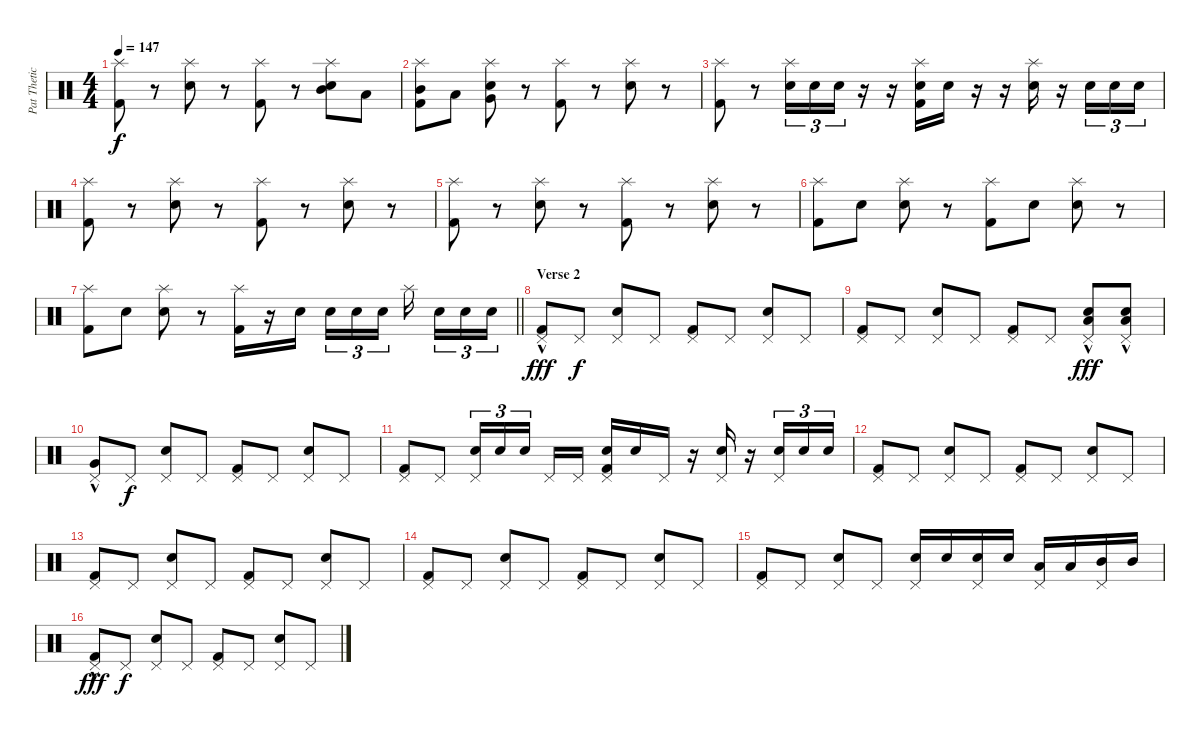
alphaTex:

\track ("Pat Thetic Drums" "Pat Thetic") {instrument percussion}
\staff {score}
\articulation defaults
\ts (4 4)
\tempo 147
\clef neutral
\ks c
("Splash (hit)" "Kick (hit) 2").8{dy f} r.8 ("Splash (hit)" "Snare (hit) 2").8 r.8 ("Splash (hit)" "Kick (hit) 2").8 r.8 ("Splash (hit)" "Snare (hit) 2" "Mid Tom (hit)").8 "Low Floor Tom (hit)".8 |
("Splash (hit)" "Kick (hit) 2" "Mid Tom (hit)").8 "Low Floor Tom (hit)".8 ("Splash (hit)" "Snare (hit) 2" "Very Low Tom (hit)").8 r.8 ("Splash (hit)" "Kick (hit) 2").8 r.8 ("Splash (hit)" "Snare (hit) 2").8 r.8 |
("Splash (hit)" "Kick (hit) 2").8 r.8 ("Splash (hit)" "Snare (hit) 2").16{tu (3 2)} "Snare (hit) 2".16{tu (3 2)} "Snare (hit) 2".16{tu (3 2)} r.16 r.16 ("Splash (hit)" "Kick (hit) 2" "Snare (hit) 2").16 "Snare (hit) 2".16 r.16 r.16 ("Splash (hit)" "Snare (hit) 2").16 r.16 "Snare (hit) 2".16{tu (3 2)} "Snare (hit) 2".16{tu (3 2)} "Snare (hit) 2".16{tu (3 2)} |
("Splash (hit)" "Kick (hit) 2").8 r.8 ("Splash (hit)" "Snare (hit) 2").8 r.8 ("Splash (hit)" "Kick (hit) 2").8 r.8 ("Splash (hit)" "Snare (hit) 2").8 r.8 |
("Splash (hit)" "Kick (hit) 2").8 r.8 ("Splash (hit)" "Snare (hit) 2").8 r.8 ("Splash (hit)" "Kick (hit) 2").8 r.8 ("Splash (hit)" "Snare (hit) 2").8 r.8 |
("Splash (hit)" "Kick (hit) 2").8 "Snare (hit) 2".8 ("Splash (hit)" "Snare (hit) 2").8 r.8 ("Splash (hit)" "Kick (hit) 2").8 "Snare (hit) 2".8 ("Splash (hit)" "Snare (hit) 2").8 r.8 |
\barLineRight lightlight
("Splash (hit)" "Kick (hit) 2").8 "Snare (hit) 2".8 ("Splash (hit)" "Snare (hit) 2").8 r.8 ("Splash (hit)" "Kick (hit) 2").16 r.16 "Snare (hit) 2".16{beam splitsecondary} "Snare (hit) 2".16{tu (3 2)} "Snare (hit) 2".16{tu (3 2)} "Snare (hit) 2".16{tu (3 2) beam splitsecondary} "Splash (hit)".16{beam splitsecondary} "Snare (hit) 2".16{tu (3 2)} "Snare (hit) 2".16{tu (3 2)} "Snare (hit) 2".16{tu (3 2)} |
\section ("" "Verse 2")
("Pedal Hi-Hat (hit)" "Kick (hit) 2"{hac}).8{dy fff} "Pedal Hi-Hat (hit)".8{dy f} ("Pedal Hi-Hat (hit)" "Snare (hit) 2").8 "Pedal Hi-Hat (hit)".8 ("Pedal Hi-Hat (hit)" "Kick (hit) 2").8 "Pedal Hi-Hat (hit)".8 ("Pedal Hi-Hat (hit)" "Snare (hit) 2").8 "Pedal Hi-Hat (hit)".8 |
("Pedal Hi-Hat (hit)" "Kick (hit) 2").8 "Pedal Hi-Hat (hit)".8 ("Pedal Hi-Hat (hit)" "Snare (hit) 2").8 "Pedal Hi-Hat (hit)".8 ("Pedal Hi-Hat (hit)" "Kick (hit) 2").8 "Pedal Hi-Hat (hit)".8 ("Pedal Hi-Hat (hit)" "Snare (hit) 2" "Low Floor Tom (hit)"{hac}).8{dy fff} ("Pedal Hi-Hat (hit)" "Snare (hit) 2" "Low Floor Tom (hit)"{hac}).8 |
("Pedal Hi-Hat (hit)" "Very Low Tom (hit)"{hac}).8 "Pedal Hi-Hat (hit)".8{dy f} ("Pedal Hi-Hat (hit)" "Snare (hit) 2").8 "Pedal Hi-Hat (hit)".8 ("Pedal Hi-Hat (hit)" "Kick (hit) 2").8 "Pedal Hi-Hat (hit)".8 ("Pedal Hi-Hat (hit)" "Snare (hit) 2").8 "Pedal Hi-Hat (hit)".8 |
("Pedal Hi-Hat (hit)" "Kick (hit) 2").8 "Pedal Hi-Hat (hit)".8 ("Pedal Hi-Hat (hit)" "Snare (hit) 2").16{tu (3 2)} "Snare (hit) 2".16{tu (3 2)} "Snare (hit) 2".16{tu (3 2) beam splitsecondary} "Pedal Hi-Hat (hit)".16 "Pedal Hi-Hat (hit)".16 ("Pedal Hi-Hat (hit)" "Kick (hit) 2" "Snare (hit) 2").16 "Snare (hit) 2".16 "Pedal Hi-Hat (hit)".16 r.16 ("Pedal Hi-Hat (hit)" "Snare (hit) 2").16 r.16 ("Pedal Hi-Hat (hit)" "Snare (hit) 2").16{tu (3 2)} "Snare (hit) 2".16{tu (3 2)} "Snare (hit) 2".16{tu (3 2)} |
("Pedal Hi-Hat (hit)" "Kick (hit) 2").8 "Pedal Hi-Hat (hit)".8 ("Pedal Hi-Hat (hit)" "Snare (hit) 2").8 "Pedal Hi-Hat (hit)".8 ("Pedal Hi-Hat (hit)" "Kick (hit) 2").8 "Pedal Hi-Hat (hit)".8 ("Pedal Hi-Hat (hit)" "Snare (hit) 2").8 "Pedal Hi-Hat (hit)".8 |
("Pedal Hi-Hat (hit)" "Kick (hit) 2").8 "Pedal Hi-Hat (hit)".8 ("Pedal Hi-Hat (hit)" "Snare (hit) 2").8 "Pedal Hi-Hat (hit)".8 ("Pedal Hi-Hat (hit)" "Kick (hit) 2").8 "Pedal Hi-Hat (hit)".8 ("Pedal Hi-Hat (hit)" "Snare (hit) 2").8 "Pedal Hi-Hat (hit)".8 |
("Pedal Hi-Hat (hit)" "Kick (hit) 2").8 "Pedal Hi-Hat (hit)".8 ("Pedal Hi-Hat (hit)" "Snare (hit) 2").8 "Pedal Hi-Hat (hit)".8 ("Pedal Hi-Hat (hit)" "Kick (hit) 2").8 "Pedal Hi-Hat (hit)".8 ("Pedal Hi-Hat (hit)" "Snare (hit) 2").8 "Pedal Hi-Hat (hit)".8 |
("Pedal Hi-Hat (hit)" "Kick (hit) 2").8 "Pedal Hi-Hat (hit)".8 ("Pedal Hi-Hat (hit)" "Snare (hit) 2").8 "Pedal Hi-Hat (hit)".8 ("Pedal Hi-Hat (hit)" "Snare (hit) 2").16 "Snare (hit) 2".16 ("Pedal Hi-Hat (hit)" "Snare (hit) 2").16 "Snare (hit) 2".16 ("Pedal Hi-Hat (hit)" "Low Tom (hit)").16 "Low Tom (hit)".16 ("Pedal Hi-Hat (hit)" "Mid Tom (hit)").16 "Mid Tom (hit)".16 |
("Pedal Hi-Hat (hit)" "Kick (hit) 2"{hac}).8{dy fff} "Pedal Hi-Hat (hit)".8{dy f} ("Pedal Hi-Hat (hit)" "Snare (hit) 2").8 "Pedal Hi-Hat (hit)".8 ("Pedal Hi-Hat (hit)" "Kick (hit) 2").8 "Pedal Hi-Hat (hit)".8 ("Pedal Hi-Hat (hit)" "Snare (hit) 2").8 "Pedal Hi-Hat (hit)".8
